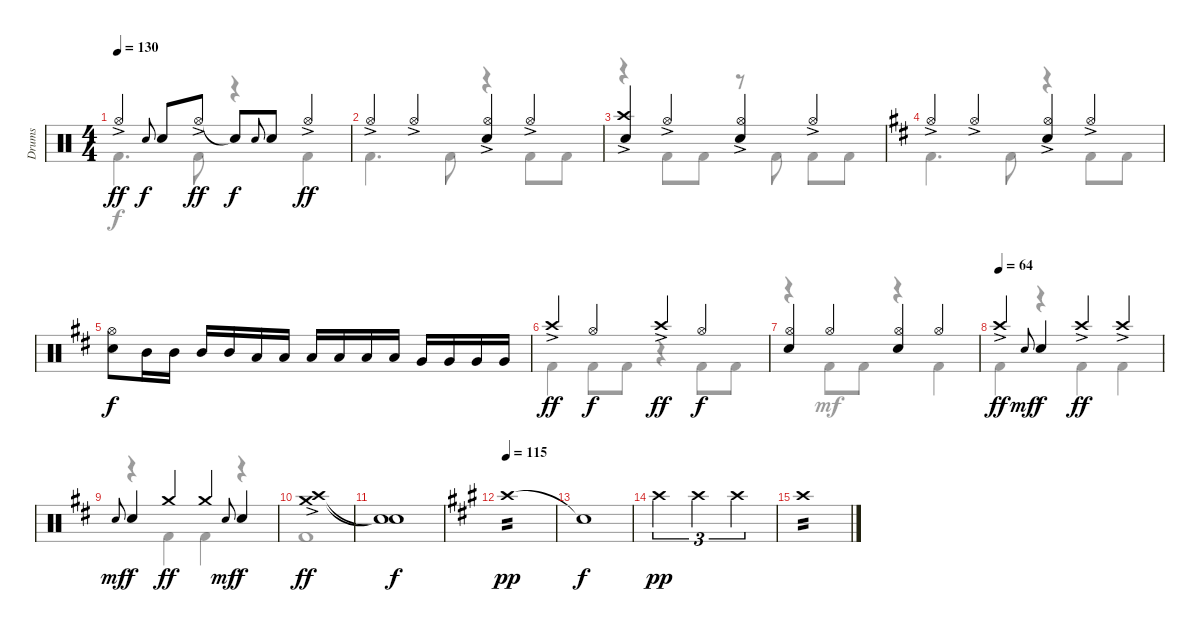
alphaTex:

\track ("Drums" "Drums") {instrument percussion}
\staff {score}
\articulation defaults
\voice
\ts (4 4)
\tempo 130
\clef neutral
\ks c "Hi-Hat (open)"{ac}.4{dy ff} "Electric Snare (hit)".8{gr onbeat dy f} "Electric Snare (hit)".8 "Hi-Hat (open)"{ac}.8{dy ff} "Snare (hit)"{t}.8{dy f} "Electric Snare (hit)".8{gr onbeat} "Electric Snare (hit)".8 "Hi-Hat (open)"{ac}.4{dy ff}
|
"Hi-Hat (open)"{ac}.4 "Hi-Hat (open)"{ac}.4 ("Hi-Hat (open)"{ac} "Electric Snare (hit)").4 "Hi-Hat (open)"{ac}.4 |
("Crash high (hit)"{ac} "Electric Snare (hit)").4 "Hi-Hat (open)"{ac}.4 ("Hi-Hat (open)"{ac} "Electric Snare (hit)").4 "Hi-Hat (open)"{ac}.4 |
\ks d "Hi-Hat (open)"{ac}.4 "Hi-Hat (open)"{ac}.4
("Hi-Hat (open)"{ac} "Electric Snare (hit)").4 "Hi-Hat (open)"{ac}.4 |
("Hi-Hat (open)" "Electric Snare (hit)").8{dy f} "Mid Tom (hit)".16 "Mid Tom (hit)".16 "Mid Tom (hit)".16 "Mid Tom (hit)".16 "Low Tom (hit)".16 "Low Tom (hit)".16 "Low Tom (hit)".16 "Low Tom (hit)".16 "Low Tom (hit)".16 "Low Tom (hit)".16 "Very Low Tom (hit)".16 "Very Low Tom (hit)".16 "Very Low Tom (hit)".16 "Very Low Tom (hit)".16 |
"Crash high (hit)"{ac}.4{dy ff} "Hi-Hat (open)".4{dy f} "Crash high (hit)"{ac}.4{dy ff} "Hi-Hat (open)".4{dy f} |
("Hi-Hat (open)" "Electric Snare (hit)").4 "Hi-Hat (open)".4 ("Hi-Hat (open)" "Electric Snare (hit)").4 "Hi-Hat (open)".4 |
\tempo (64)
"Crash high (hit)"{ac}.4{dy ff} "Electric Snare (hit)".8{gr onbeat dy mf} "Electric Snare (hit)".4{dy f} "Crash high (hit)"{ac}.4{dy ff} "Crash high (hit)"{ac}.4 |
"Electric Snare (hit)".8{gr onbeat dy mf} "Electric Snare (hit)".4{dy f} "Crash medium (hit)".4{dy ff} "Crash medium (hit)".4 "Electric Snare (hit)".8{gr onbeat dy mf} "Electric Snare (hit)".4{dy f} |
("Crash high (hit)"{ac} "Crash medium (hit)"{ac}).1{dy ff} |
("Snare (hit)"{t} "Snare (hit)"{t}).1{dy f} |
\tempo 115
\ks a "Crash high (hit)".1{tp 2 dy pp}
|
"Snare (hit)"{t}.1{dy f} |
"Crash high (hit)".2{tu (3 2) dy pp} "Crash high (hit)".2{tu (3 2)} "Crash high (hit)".2{tu (3 2)} |
"Crash high (hit)".1{tp 2 volume 0} |
\voice
\clef neutral
\ottava regular
\simile none
\ks c "Kick (hit) 2".4{d dy f} "Kick (hit) 2".8
r.4 "Kick (hit) 2".4 |
"Kick (hit) 2".4{d} "Kick (hit) 2".8 r.4 "Kick (hit) 2".8 "Kick (hit) 2".8 |
r.4 "Kick (hit) 2".8 "Kick (hit) 2".8 r.8 "Kick (hit) 2".8 "Kick (hit) 2".8 "Kick (hit) 2".8 |
\ks d "Kick (hit) 2".4{d} "Kick (hit) 2".8
r.4 "Kick (hit) 2".8 "Kick (hit) 2".8 |
|
"Kick (hit) 2".4 "Kick (hit) 2".8 "Kick (hit) 2".8 r.4 "Kick (hit) 2".8 "Kick (hit) 2".8 |
r.4 "Kick (hit) 2".8{dy mf} "Kick (hit) 2".8 r.4 "Kick (hit) 2".4 |
"Kick (hit) 2".4 r.4 "Kick (hit) 2".4 "Kick (hit) 2".4 |
r.4 "Kick (hit) 2".4 "Kick (hit) 2".4 r.4 |
"Kick (hit) 2".1{dy ff} |
|
\ks a
|
|
|
|
